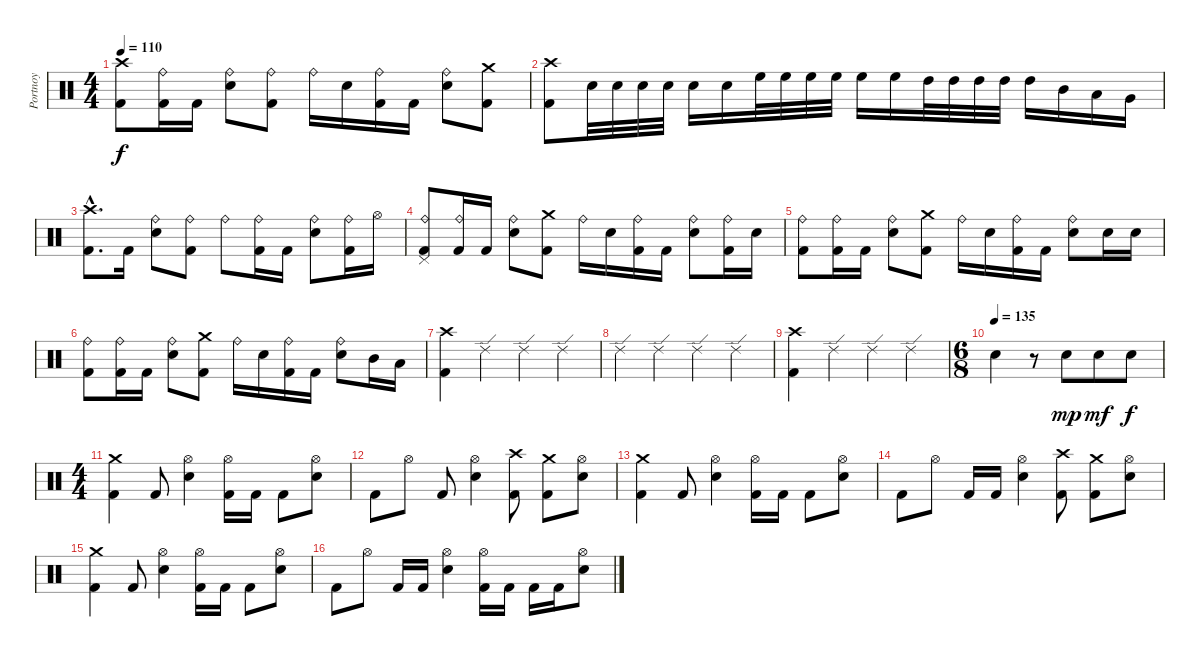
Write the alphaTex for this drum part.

\track ("Portnoy" "Portnoy") {instrument percussion}
\staff {score}
\articulation defaults
\ts (4 4)
\tempo 110
\clef neutral
\ks c
("Kick (hit) 2" "Crash high (hit)").8{dy f} ("Kick (hit) 2" "Ride (bell)").16 "Kick (hit) 2".16 ("Ride (bell)" "Snare (hit) 2").8 ("Kick (hit) 2" "Ride (bell)").8 "Ride (bell)".16 "Snare (hit) 2".16 ("Kick (hit) 2" "Ride (bell)").16 "Kick (hit) 2".16 ("Ride (bell)" "Snare (hit) 2").8 ("Kick (hit) 2" "Crash medium (hit)").8 |
("Kick (hit) 2" "Crash high (hit)").8 "Snare (hit) 2".32 "Snare (hit) 2".32 "Snare (hit) 2".32 "Snare (hit) 2".32 "Snare (hit) 2".16 "Snare (hit) 2".16 "High Floor Tom (hit)".32 "High Floor Tom (hit)".32 "High Floor Tom (hit)".32 "High Floor Tom (hit)".32 "High Floor Tom (hit)".16 "High Floor Tom (hit)".16 "High Tom (hit)".32 "High Tom (hit)".32 "High Tom (hit)".32 "High Tom (hit)".32 "High Tom (hit)".16 "Mid Tom (hit)".16 "Low Tom (hit)".16 "Very Low Tom (hit)".16 |
("Kick (hit) 2"{hac} "Crash high (hit)"{hac}).8{d} "Kick (hit) 2".16 ("Ride (bell)" "Snare (hit) 2").8 ("Kick (hit) 2" "Ride (bell)").8 "Ride (bell)".8 ("Kick (hit) 2" "Ride (bell)").16 "Kick (hit) 2".16 ("Ride (bell)" "Snare (hit) 2").8 ("Kick (hit) 2" "Ride (bell)").16 "Hi-Hat (open)".16 |
("Kick (hit) 2" "Pedal Hi-Hat (hit)" "Ride (bell)").8 ("Kick (hit) 2" "Ride (bell)").16 "Kick (hit) 2".16 ("Ride (bell)" "Snare (hit) 2").8 ("Kick (hit) 2" "Crash medium (hit)").8 "Ride (bell)".16 "Snare (hit) 2".16 ("Kick (hit) 2" "Ride (bell)").16 "Kick (hit) 2".16 ("Ride (bell)" "Snare (hit) 2").8 ("Kick (hit) 2" "Ride (bell)").16 "Snare (hit) 2".16 |
("Kick (hit) 2" "Ride (bell)").8 ("Kick (hit) 2" "Ride (bell)").16 "Kick (hit) 2".16 ("Ride (bell)" "Snare (hit) 2").8 ("Kick (hit) 2" "Crash medium (hit)").8 "Ride (bell)".16 "Snare (hit) 2".16 ("Kick (hit) 2" "Ride (bell)").16 "Kick (hit) 2".16 ("Ride (bell)" "Snare (hit) 2").8 "Snare (hit) 2".16 "Snare (hit) 2".16 |
("Kick (hit) 2" "Ride (bell)").8 ("Kick (hit) 2" "Ride (bell)").16 "Kick (hit) 2".16 ("Ride (bell)" "Snare (hit) 2").8 ("Kick (hit) 2" "Crash medium (hit)").8 "Ride (bell)".16 "Snare (hit) 2".16 ("Kick (hit) 2" "Ride (bell)").16 "Kick (hit) 2".16 ("Ride (bell)" "Snare (hit) 2").8 "Mid Tom (hit)".16 "Low Tom (hit)".16 |
("Kick (hit) 2" "Crash high (hit)").4 "Ride (edge) 2".4 "Ride (edge) 2".4 "Ride (edge) 2".4 |
"Ride (edge) 2".4 "Ride (edge) 2".4 "Ride (edge) 2".4 "Ride (edge) 2".4 |
("Kick (hit) 2" "Crash high (hit)").4 "Ride (edge) 2".4 "Ride (edge) 2".4 "Ride (edge) 2".4 |
\ts (6 8)
\tempo (135)
"Snare (hit) 2".4 r.8 "Snare (hit) 2".8{dy mp} "Snare (hit) 2".8{dy mf} "Snare (hit) 2".8{dy f} |
\ts (4 4)
("Kick (hit) 2" "Crash medium (hit)").4 "Kick (hit) 2".8 ("Hi-Hat (open)" "Snare (hit) 2").4 ("Kick (hit) 2" "Hi-Hat (open)").16 "Kick (hit) 2".16 "Kick (hit) 2".8 ("Hi-Hat (open)" "Snare (hit) 2").8 |
"Kick (hit) 2".8 "Hi-Hat (open)".8 "Kick (hit) 2".8 ("Hi-Hat (open)" "Snare (hit) 2").4 ("Kick (hit) 2" "Crash high (hit)").8 ("Kick (hit) 2" "Crash medium (hit)").8 ("Hi-Hat (open)" "Snare (hit) 2").8 |
("Kick (hit) 2" "Crash medium (hit)").4 "Kick (hit) 2".8 ("Hi-Hat (open)" "Snare (hit) 2").4 ("Kick (hit) 2" "Hi-Hat (open)").16 "Kick (hit) 2".16 "Kick (hit) 2".8 ("Hi-Hat (open)" "Snare (hit) 2").8 |
"Kick (hit) 2".8 "Hi-Hat (open)".8 "Kick (hit) 2".16 "Kick (hit) 2".16 ("Hi-Hat (open)" "Snare (hit) 2").4 ("Kick (hit) 2" "Crash high (hit)").8 ("Kick (hit) 2" "Crash medium (hit)").8 ("Hi-Hat (open)" "Snare (hit) 2").8 |
("Kick (hit) 2" "Crash medium (hit)").4 "Kick (hit) 2".8 ("Hi-Hat (open)" "Snare (hit) 2").4 ("Kick (hit) 2" "Hi-Hat (open)").16 "Kick (hit) 2".16 "Kick (hit) 2".8 ("Hi-Hat (open)" "Snare (hit) 2").8 |
"Kick (hit) 2".8 "Hi-Hat (open)".8 "Kick (hit) 2".16 "Kick (hit) 2".16 ("Hi-Hat (open)" "Snare (hit) 2").4 ("Kick (hit) 2" "Hi-Hat (open)").16 "Kick (hit) 2".16 "Kick (hit) 2".16 "Kick (hit) 2".16 ("Hi-Hat (open)" "Snare (hit) 2").8
